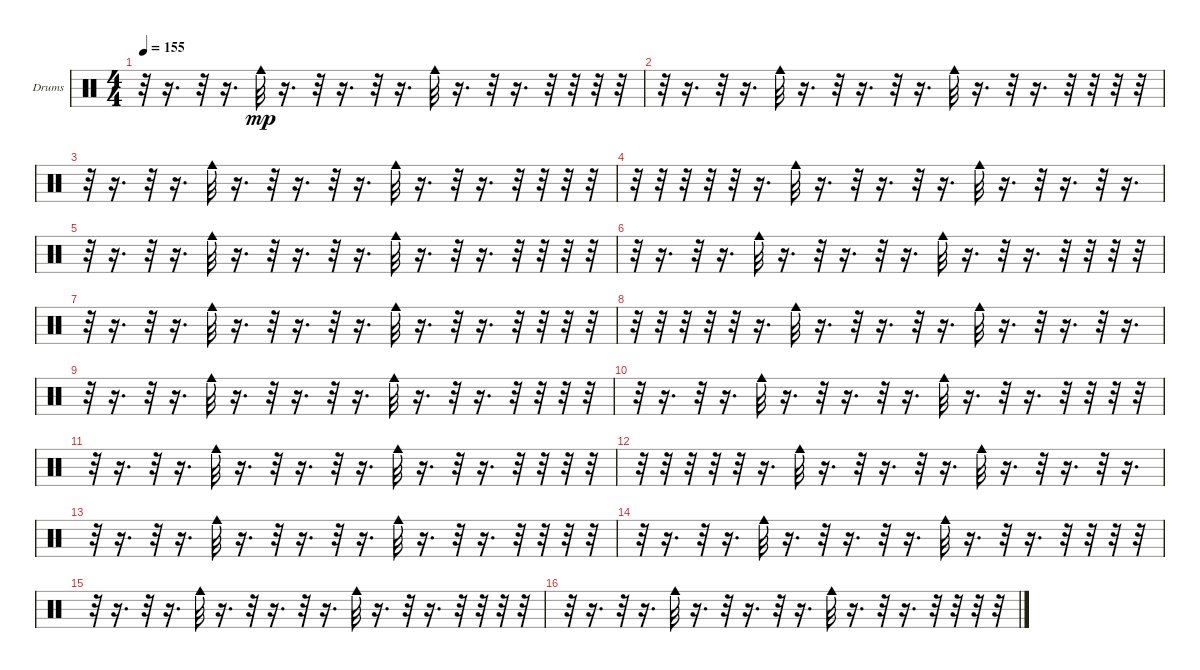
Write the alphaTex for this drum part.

\bracketExtendMode groupsimilarinstruments
\firstSystemTrackNameOrientation horizontal
\otherSystemsTrackNameOrientation horizontal
\track ("Е. Кулаков" "Drums") {instrument percussion}
\staff {score}
\articulation defaults
\ts (4 4)
\tempo 155
\clef neutral
\ks c
r.32{dy mp} r.16{d} r.32 r.16{d} "Cowbell medium (hit)".32 r.16{d} r.32 r.16{d} r.32 r.16{d} "Cowbell medium (hit)".32 r.16{d} r.32 r.16{d} r.32 r.32 r.32 r.32 |
r.32 r.16{d} r.32 r.16{d} "Cowbell medium (hit)".32 r.16{d} r.32 r.16{d} r.32 r.16{d} "Cowbell medium (hit)".32 r.16{d} r.32 r.16{d} r.32 r.32 r.32 r.32 |
r.32 r.16{d} r.32 r.16{d} "Cowbell medium (hit)".32 r.16{d} r.32 r.16{d} r.32 r.16{d} "Cowbell medium (hit)".32 r.16{d} r.32 r.16{d} r.32 r.32 r.32 r.32 |
r.32 r.32 r.32 r.32 r.32 r.16{d} "Cowbell medium (hit)".32 r.16{d} r.32 r.16{d} r.32 r.16{d} "Cowbell medium (hit)".32 r.16{d} r.32 r.16{d} r.32 r.16{d} |
r.32 r.16{d} r.32 r.16{d} "Cowbell medium (hit)".32 r.16{d} r.32 r.16{d} r.32 r.16{d} "Cowbell medium (hit)".32 r.16{d} r.32 r.16{d} r.32 r.32 r.32 r.32 |
r.32 r.16{d} r.32 r.16{d} "Cowbell medium (hit)".32 r.16{d} r.32 r.16{d} r.32 r.16{d} "Cowbell medium (hit)".32 r.16{d} r.32 r.16{d} r.32 r.32 r.32 r.32 |
r.32 r.16{d} r.32 r.16{d} "Cowbell medium (hit)".32 r.16{d} r.32 r.16{d} r.32 r.16{d} "Cowbell medium (hit)".32 r.16{d} r.32 r.16{d} r.32 r.32 r.32 r.32 |
r.32 r.32 r.32 r.32 r.32 r.16{d} "Cowbell medium (hit)".32 r.16{d} r.32 r.16{d} r.32 r.16{d} "Cowbell medium (hit)".32 r.16{d} r.32 r.16{d} r.32 r.16{d} |
r.32 r.16{d} r.32 r.16{d} "Cowbell medium (hit)".32 r.16{d} r.32 r.16{d} r.32 r.16{d} "Cowbell medium (hit)".32 r.16{d} r.32 r.16{d} r.32 r.32 r.32 r.32 |
r.32 r.16{d} r.32 r.16{d} "Cowbell medium (hit)".32 r.16{d} r.32 r.16{d} r.32 r.16{d} "Cowbell medium (hit)".32 r.16{d} r.32 r.16{d} r.32 r.32 r.32 r.32 |
r.32 r.16{d} r.32 r.16{d} "Cowbell medium (hit)".32 r.16{d} r.32 r.16{d} r.32 r.16{d} "Cowbell medium (hit)".32 r.16{d} r.32 r.16{d} r.32 r.32 r.32 r.32 |
r.32 r.32 r.32 r.32 r.32 r.16{d} "Cowbell medium (hit)".32 r.16{d} r.32 r.16{d} r.32 r.16{d} "Cowbell medium (hit)".32 r.16{d} r.32 r.16{d} r.32 r.16{d} |
r.32 r.16{d} r.32 r.16{d} "Cowbell medium (hit)".32 r.16{d} r.32 r.16{d} r.32 r.16{d} "Cowbell medium (hit)".32 r.16{d} r.32 r.16{d} r.32 r.32 r.32 r.32 |
r.32 r.16{d} r.32 r.16{d} "Cowbell medium (hit)".32 r.16{d} r.32 r.16{d} r.32 r.16{d} "Cowbell medium (hit)".32 r.16{d} r.32 r.16{d} r.32 r.32 r.32 r.32 |
r.32 r.16{d} r.32 r.16{d} "Cowbell medium (hit)".32 r.16{d} r.32 r.16{d} r.32 r.16{d} "Cowbell medium (hit)".32 r.16{d} r.32 r.16{d} r.32 r.32 r.32 r.32 |
r.32 r.16{d} r.32 r.16{d} "Cowbell medium (hit)".32 r.16{d} r.32 r.16{d} r.32 r.16{d} "Cowbell medium (hit)".32 r.16{d} r.32 r.16{d} r.32 r.32 r.32 r.32
